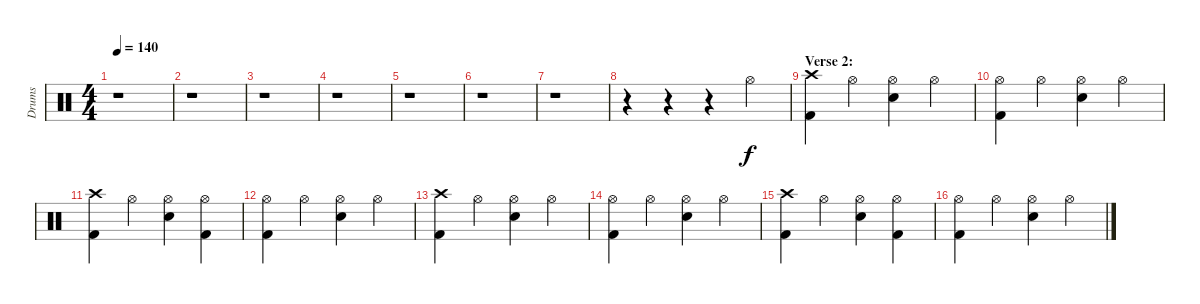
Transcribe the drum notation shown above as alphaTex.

\track ("Drums" "Drums") {instrument percussion}
\staff {score}
\articulation defaults
\ts (4 4)
\tempo 140
\clef neutral
\ks c
r.1{dy f} |
r.1 |
r.1 |
r.1 |
r.1 |
r.1 |
r.1 |
r.4 r.4 r.4 "Hi-Hat (open)".4 |
\section ("" "Verse 2:")
("Crash high (hit)" "Kick (hit) 2").4 "Hi-Hat (open)".4 ("Hi-Hat (open)" "Electric Snare (hit)").4 "Hi-Hat (open)".4 |
("Hi-Hat (open)" "Kick (hit) 2").4 "Hi-Hat (open)".4 ("Hi-Hat (open)" "Electric Snare (hit)").4 "Hi-Hat (open)".4 |
("Crash high (hit)" "Kick (hit) 2").4 "Hi-Hat (open)".4 ("Hi-Hat (open)" "Electric Snare (hit)").4 ("Hi-Hat (open)" "Kick (hit) 2").4 |
("Hi-Hat (open)" "Kick (hit) 2").4 "Hi-Hat (open)".4 ("Hi-Hat (open)" "Electric Snare (hit)").4 "Hi-Hat (open)".4 |
("Crash high (hit)" "Kick (hit) 2").4 "Hi-Hat (open)".4 ("Hi-Hat (open)" "Electric Snare (hit)").4 "Hi-Hat (open)".4 |
("Hi-Hat (open)" "Kick (hit) 2").4 "Hi-Hat (open)".4 ("Hi-Hat (open)" "Electric Snare (hit)").4 "Hi-Hat (open)".4 |
("Crash high (hit)" "Kick (hit) 2").4 "Hi-Hat (open)".4 ("Hi-Hat (open)" "Electric Snare (hit)").4 ("Hi-Hat (open)" "Kick (hit) 2").4 |
("Hi-Hat (open)" "Kick (hit) 2").4 "Hi-Hat (open)".4 ("Hi-Hat (open)" "Electric Snare (hit)").4 "Hi-Hat (open)".4
